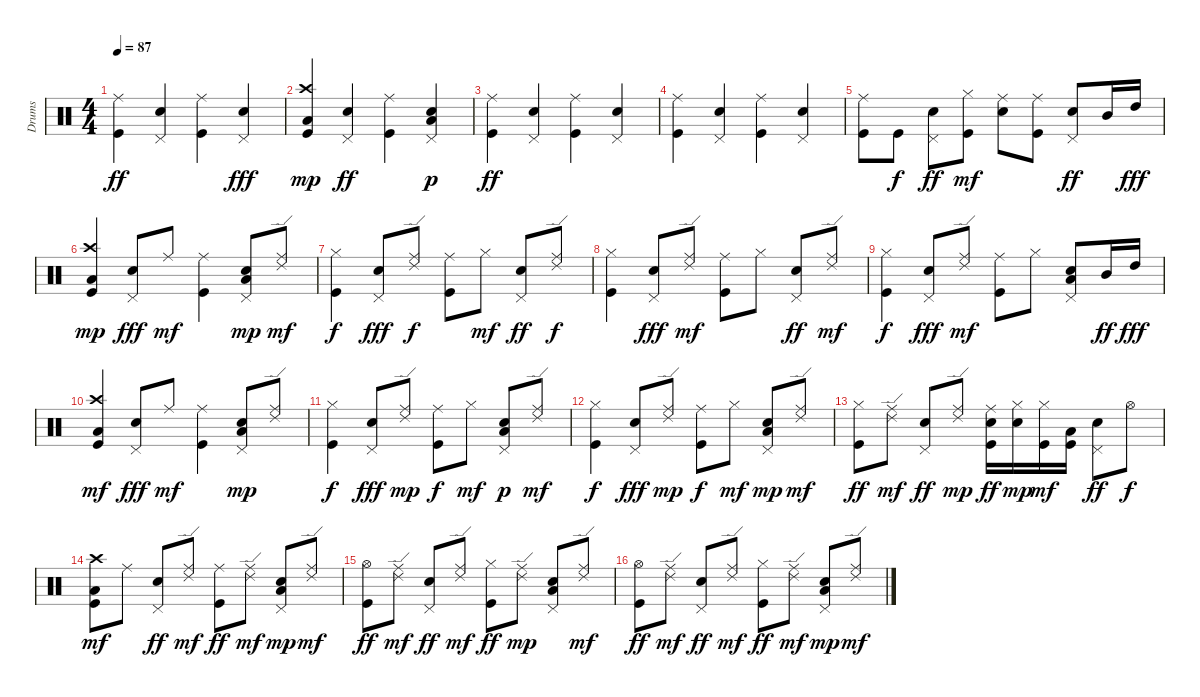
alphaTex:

\track ("Drums" "Drums") {instrument percussion}
\staff {score}
\articulation defaults
\ts (4 4)
\tempo 87
\clef neutral
\ks c
("Ride (middle)" "Kick (hit)").4{dy ff} ("Pedal Hi-Hat (hit)" "Snare (hit) 2").4 ("Ride (middle)" "Kick (hit)").4 ("Pedal Hi-Hat (hit)" "Snare (hit) 2").4{dy fff} |
("Crash high (hit)" "Kick (hit)" "Low Floor Tom (hit)").4{dy mp} ("Pedal Hi-Hat (hit)" "Snare (hit) 2").4{dy ff} ("Ride (middle)" "Kick (hit)").4 ("Pedal Hi-Hat (hit)" "Snare (hit) 2" "Low Tom (hit)").4{dy p} |
("Ride (middle)" "Kick (hit)").4{dy ff} ("Pedal Hi-Hat (hit)" "Snare (hit) 2").4 ("Ride (middle)" "Kick (hit)").4 ("Pedal Hi-Hat (hit)" "Snare (hit) 2").4 |
("Ride (middle)" "Kick (hit)").4 ("Pedal Hi-Hat (hit)" "Snare (hit) 2").4 ("Ride (middle)" "Kick (hit)").4 ("Pedal Hi-Hat (hit)" "Snare (hit) 2").4 |
("Ride (middle)" "Kick (hit)").8 "Kick (hit)".8{dy f} ("Pedal Hi-Hat (hit)" "Snare (hit) 2").8{dy ff} ("Hi-Hat (closed)" "Kick (hit)").8{dy mf} ("Ride (middle)" "Snare (hit) 2").8 ("Ride (middle)" "Kick (hit)").8 ("Pedal Hi-Hat (hit)" "Snare (hit) 2").8{dy ff} "Mid Tom (hit)".16 "High Tom (hit)".16{dy fff} |
("Crash high (hit)" "Kick (hit)" "Low Floor Tom (hit)").4{dy mp} ("Pedal Hi-Hat (hit)" "Snare (hit) 2").8{dy fff} "Ride (middle)".8{dy mf} ("Ride (middle)" "Kick (hit)").4 ("Pedal Hi-Hat (hit)" "Snare (hit) 2" "Low Tom (hit)").8{dy mp} ("Ride (middle)" "Ride (edge) 2").8{dy mf} |
("Hi-Hat (closed)" "Kick (hit)").4{dy f} ("Pedal Hi-Hat (hit)" "Snare (hit) 2").8{dy fff} ("Ride (middle)" "Ride (edge) 2").8{dy f} ("Ride (middle)" "Kick (hit)").8 "Hi-Hat (closed)".8{dy mf} ("Pedal Hi-Hat (hit)" "Snare (hit) 2").8{dy ff} ("Ride (middle)" "Ride (edge) 2").8{dy f} |
("Hi-Hat (closed)" "Kick (hit)").4 ("Pedal Hi-Hat (hit)" "Snare (hit) 2").8{dy fff} ("Ride (middle)" "Ride (edge) 2").8{dy mf} ("Ride (middle)" "Kick (hit)").8 "Hi-Hat (closed)".8 ("Pedal Hi-Hat (hit)" "Snare (hit) 2").8{dy ff} ("Ride (middle)" "Ride (edge) 2").8{dy mf} |
("Hi-Hat (closed)" "Kick (hit)").4{dy f} ("Pedal Hi-Hat (hit)" "Snare (hit) 2").8{dy fff} ("Ride (middle)" "Ride (edge) 2").8{dy mf} ("Ride (middle)" "Kick (hit)").8 "Hi-Hat (closed)".8 ("Pedal Hi-Hat (hit)" "Snare (hit) 2" "Low Tom (hit)").8 "Mid Tom (hit)".16{dy ff} "High Tom (hit)".16{dy fff} |
("Crash high (hit)" "Kick (hit)" "Low Floor Tom (hit)").4{dy mf} ("Pedal Hi-Hat (hit)" "Snare (hit) 2").8{dy fff} "Ride (middle)".8{dy mf} ("Ride (middle)" "Kick (hit)").4 ("Pedal Hi-Hat (hit)" "Snare (hit) 2" "Low Tom (hit)").8{dy mp} ("Ride (middle)" "Ride (edge) 2").8 |
("Hi-Hat (closed)" "Kick (hit)").4{dy f} ("Pedal Hi-Hat (hit)" "Snare (hit) 2").8{dy fff} ("Ride (middle)" "Ride (edge) 2").8{dy mp} ("Ride (middle)" "Kick (hit)").8{dy f} "Hi-Hat (closed)".8{dy mf} ("Pedal Hi-Hat (hit)" "Snare (hit) 2" "Low Tom (hit)").8{dy p} ("Ride (middle)" "Ride (edge) 2").8{dy mf} |
("Hi-Hat (closed)" "Kick (hit)").4{dy f} ("Pedal Hi-Hat (hit)" "Snare (hit) 2").8{dy fff} ("Ride (middle)" "Ride (edge) 2").8{dy mp} ("Ride (middle)" "Kick (hit)").8{dy f} "Hi-Hat (closed)".8{dy mf} ("Pedal Hi-Hat (hit)" "Snare (hit) 2" "Low Tom (hit)").8{dy mp} ("Ride (middle)" "Ride (edge) 2").8{dy mf} |
("Hi-Hat (closed)" "Kick (hit)").8{dy ff} ("Ride (middle)" "Ride (edge) 2").8{dy mf} ("Pedal Hi-Hat (hit)" "Snare (hit) 2").8{dy ff} ("Ride (middle)" "Ride (edge) 2").8{dy mp} ("Ride (middle)" "Snare (hit) 2" "Kick (hit)").16{dy ff} ("Hi-Hat (closed)" "Snare (hit) 2").16{dy mp} ("Hi-Hat (closed)" "Kick (hit)").16{dy mf} ("Low Floor Tom (hit)" "Kick (hit)").16 ("Pedal Hi-Hat (hit)" "Snare (hit) 2").8{dy ff} "Hi-Hat (open)".8{dy f} |
("Crash high (hit)" "Kick (hit)" "Low Floor Tom (hit)").8{dy mf} "Ride (middle)".8 ("Pedal Hi-Hat (hit)" "Snare (hit) 2").8{dy ff} ("Ride (middle)" "Ride (edge) 2").8{dy mf} ("Ride (middle)" "Kick (hit)").8{dy ff} ("Ride (middle)" "Ride (edge) 2").8{dy mf} ("Pedal Hi-Hat (hit)" "Snare (hit) 2" "Low Tom (hit)").8{dy mp} ("Ride (middle)" "Ride (edge) 2").8{dy mf} |
("Hi-Hat (open)" "Kick (hit)").8{dy ff} ("Ride (middle)" "Ride (edge) 2").8{dy mf} ("Pedal Hi-Hat (hit)" "Snare (hit) 2").8{dy ff} ("Ride (middle)" "Ride (edge) 2").8{dy mf} ("Hi-Hat (closed)" "Kick (hit)").8{dy ff} ("Ride (middle)" "Ride (edge) 2").8{dy mp} ("Pedal Hi-Hat (hit)" "Snare (hit) 2" "Low Tom (hit)").8 ("Ride (middle)" "Ride (edge) 2").8{dy mf} |
("Hi-Hat (open)" "Kick (hit)").8{dy ff} ("Ride (middle)" "Ride (edge) 2").8{dy mf} ("Pedal Hi-Hat (hit)" "Snare (hit) 2").8{dy ff} ("Ride (middle)" "Ride (edge) 2").8{dy mf} ("Hi-Hat (closed)" "Kick (hit)").8{dy ff} ("Ride (middle)" "Ride (edge) 2").8{dy mf} ("Pedal Hi-Hat (hit)" "Snare (hit) 2" "Low Tom (hit)").8{dy mp} ("Ride (middle)" "Ride (edge) 2").8{dy mf}
